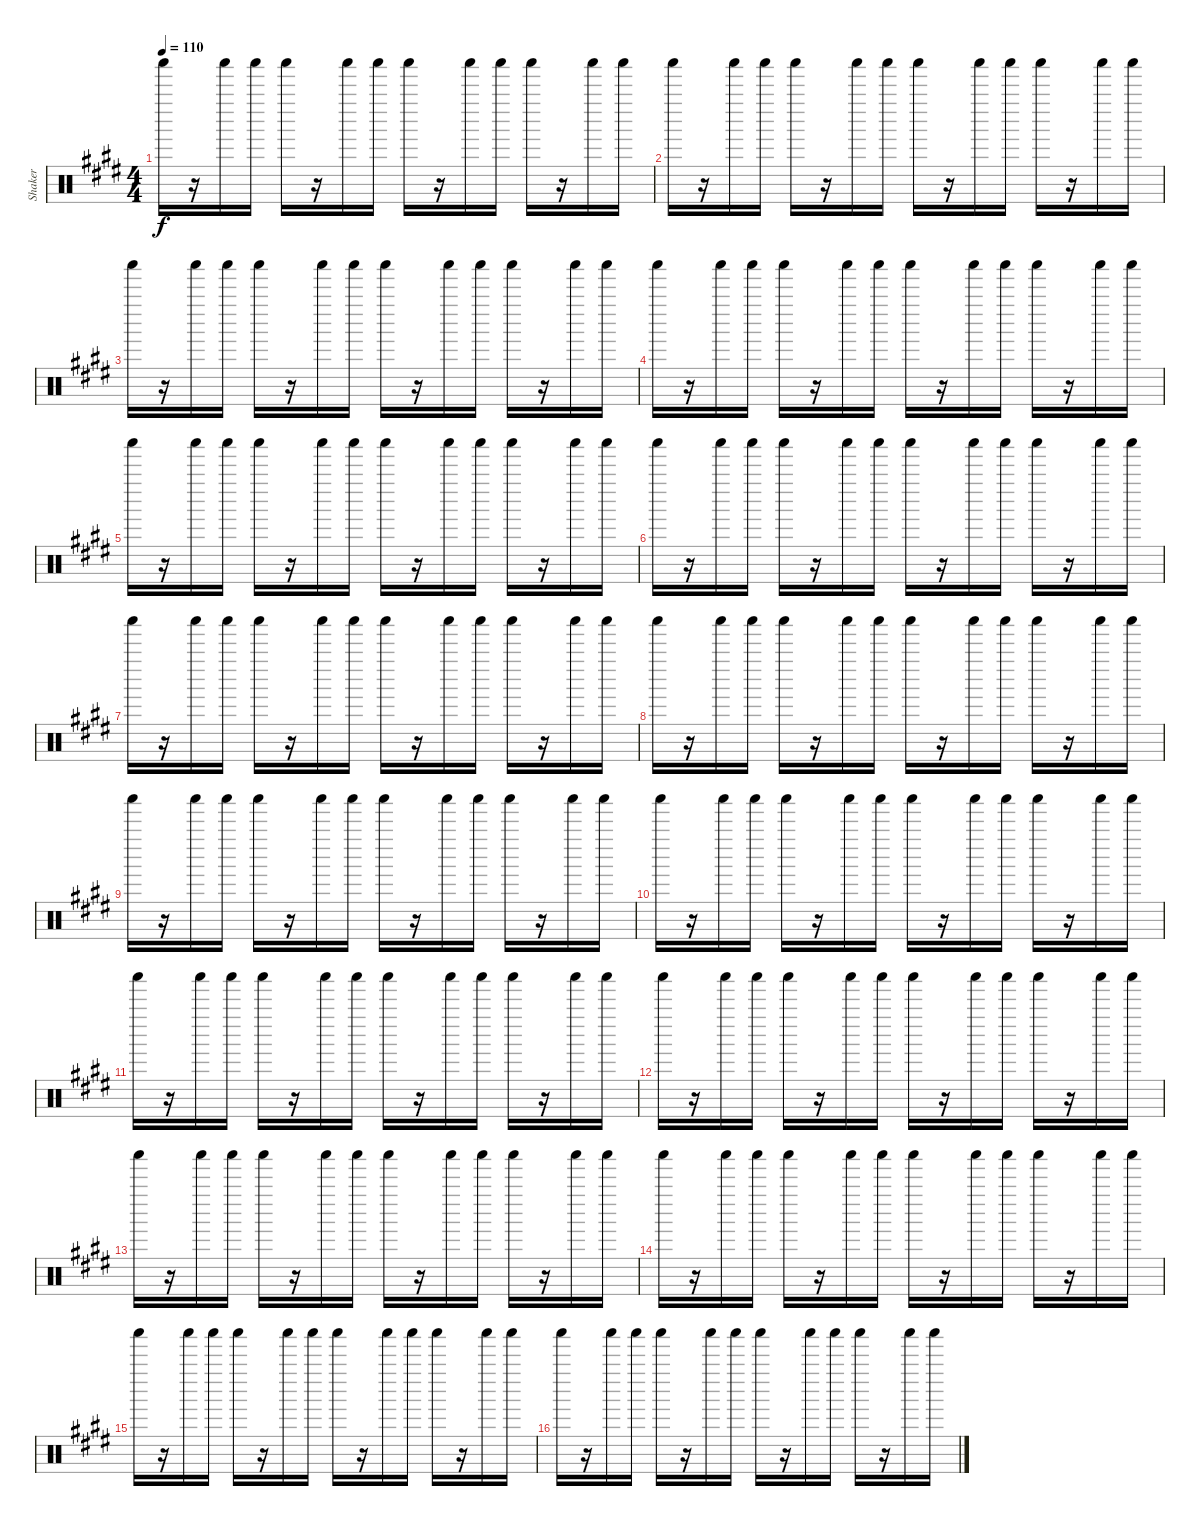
\track ("Shaker" "Shaker") {instrument percussion}
\staff {score}
\articulation defaults
\ts (4 4)
\tempo 110
\clef neutral
\ks e "Shaker (hit)".16{dy f}
r.16 "Shaker (hit)".16 "Shaker (hit)".16 "Shaker (hit)".16 r.16 "Shaker (hit)".16 "Shaker (hit)".16 "Shaker (hit)".16 r.16 "Shaker (hit)".16 "Shaker (hit)".16 "Shaker (hit)".16 r.16 "Shaker (hit)".16 "Shaker (hit)".16 |
"Shaker (hit)".16 r.16 "Shaker (hit)".16 "Shaker (hit)".16 "Shaker (hit)".16 r.16 "Shaker (hit)".16 "Shaker (hit)".16 "Shaker (hit)".16 r.16 "Shaker (hit)".16 "Shaker (hit)".16 "Shaker (hit)".16 r.16 "Shaker (hit)".16 "Shaker (hit)".16 |
"Shaker (hit)".16 r.16 "Shaker (hit)".16 "Shaker (hit)".16 "Shaker (hit)".16 r.16 "Shaker (hit)".16 "Shaker (hit)".16 "Shaker (hit)".16 r.16 "Shaker (hit)".16 "Shaker (hit)".16 "Shaker (hit)".16 r.16 "Shaker (hit)".16 "Shaker (hit)".16 |
"Shaker (hit)".16 r.16 "Shaker (hit)".16 "Shaker (hit)".16 "Shaker (hit)".16 r.16 "Shaker (hit)".16 "Shaker (hit)".16 "Shaker (hit)".16 r.16 "Shaker (hit)".16 "Shaker (hit)".16 "Shaker (hit)".16 r.16 "Shaker (hit)".16 "Shaker (hit)".16 |
"Shaker (hit)".16 r.16 "Shaker (hit)".16 "Shaker (hit)".16 "Shaker (hit)".16 r.16 "Shaker (hit)".16 "Shaker (hit)".16 "Shaker (hit)".16 r.16 "Shaker (hit)".16 "Shaker (hit)".16 "Shaker (hit)".16 r.16 "Shaker (hit)".16 "Shaker (hit)".16 |
"Shaker (hit)".16 r.16 "Shaker (hit)".16 "Shaker (hit)".16 "Shaker (hit)".16 r.16 "Shaker (hit)".16 "Shaker (hit)".16 "Shaker (hit)".16 r.16 "Shaker (hit)".16 "Shaker (hit)".16 "Shaker (hit)".16 r.16 "Shaker (hit)".16 "Shaker (hit)".16 |
"Shaker (hit)".16 r.16 "Shaker (hit)".16 "Shaker (hit)".16 "Shaker (hit)".16 r.16 "Shaker (hit)".16 "Shaker (hit)".16 "Shaker (hit)".16 r.16 "Shaker (hit)".16 "Shaker (hit)".16 "Shaker (hit)".16 r.16 "Shaker (hit)".16 "Shaker (hit)".16 |
"Shaker (hit)".16 r.16 "Shaker (hit)".16 "Shaker (hit)".16 "Shaker (hit)".16 r.16 "Shaker (hit)".16 "Shaker (hit)".16 "Shaker (hit)".16 r.16 "Shaker (hit)".16 "Shaker (hit)".16 "Shaker (hit)".16 r.16 "Shaker (hit)".16 "Shaker (hit)".16 |
"Shaker (hit)".16 r.16 "Shaker (hit)".16 "Shaker (hit)".16 "Shaker (hit)".16 r.16 "Shaker (hit)".16 "Shaker (hit)".16 "Shaker (hit)".16 r.16 "Shaker (hit)".16 "Shaker (hit)".16 "Shaker (hit)".16 r.16 "Shaker (hit)".16 "Shaker (hit)".16 |
"Shaker (hit)".16 r.16 "Shaker (hit)".16 "Shaker (hit)".16 "Shaker (hit)".16 r.16 "Shaker (hit)".16 "Shaker (hit)".16 "Shaker (hit)".16 r.16 "Shaker (hit)".16 "Shaker (hit)".16 "Shaker (hit)".16 r.16 "Shaker (hit)".16 "Shaker (hit)".16 |
"Shaker (hit)".16 r.16 "Shaker (hit)".16 "Shaker (hit)".16 "Shaker (hit)".16 r.16 "Shaker (hit)".16 "Shaker (hit)".16 "Shaker (hit)".16 r.16 "Shaker (hit)".16 "Shaker (hit)".16 "Shaker (hit)".16 r.16 "Shaker (hit)".16 "Shaker (hit)".16 |
"Shaker (hit)".16 r.16 "Shaker (hit)".16 "Shaker (hit)".16 "Shaker (hit)".16 r.16 "Shaker (hit)".16 "Shaker (hit)".16 "Shaker (hit)".16 r.16 "Shaker (hit)".16 "Shaker (hit)".16 "Shaker (hit)".16 r.16 "Shaker (hit)".16 "Shaker (hit)".16 |
"Shaker (hit)".16 r.16 "Shaker (hit)".16 "Shaker (hit)".16 "Shaker (hit)".16 r.16 "Shaker (hit)".16 "Shaker (hit)".16 "Shaker (hit)".16 r.16 "Shaker (hit)".16 "Shaker (hit)".16 "Shaker (hit)".16 r.16 "Shaker (hit)".16 "Shaker (hit)".16 |
"Shaker (hit)".16 r.16 "Shaker (hit)".16 "Shaker (hit)".16 "Shaker (hit)".16 r.16 "Shaker (hit)".16 "Shaker (hit)".16 "Shaker (hit)".16 r.16 "Shaker (hit)".16 "Shaker (hit)".16 "Shaker (hit)".16 r.16 "Shaker (hit)".16 "Shaker (hit)".16 |
"Shaker (hit)".16 r.16 "Shaker (hit)".16 "Shaker (hit)".16 "Shaker (hit)".16 r.16 "Shaker (hit)".16 "Shaker (hit)".16 "Shaker (hit)".16 r.16 "Shaker (hit)".16 "Shaker (hit)".16 "Shaker (hit)".16 r.16 "Shaker (hit)".16 "Shaker (hit)".16 |
"Shaker (hit)".16 r.16 "Shaker (hit)".16 "Shaker (hit)".16 "Shaker (hit)".16 r.16 "Shaker (hit)".16 "Shaker (hit)".16 "Shaker (hit)".16 r.16 "Shaker (hit)".16 "Shaker (hit)".16 "Shaker (hit)".16 r.16 "Shaker (hit)".16 "Shaker (hit)".16
